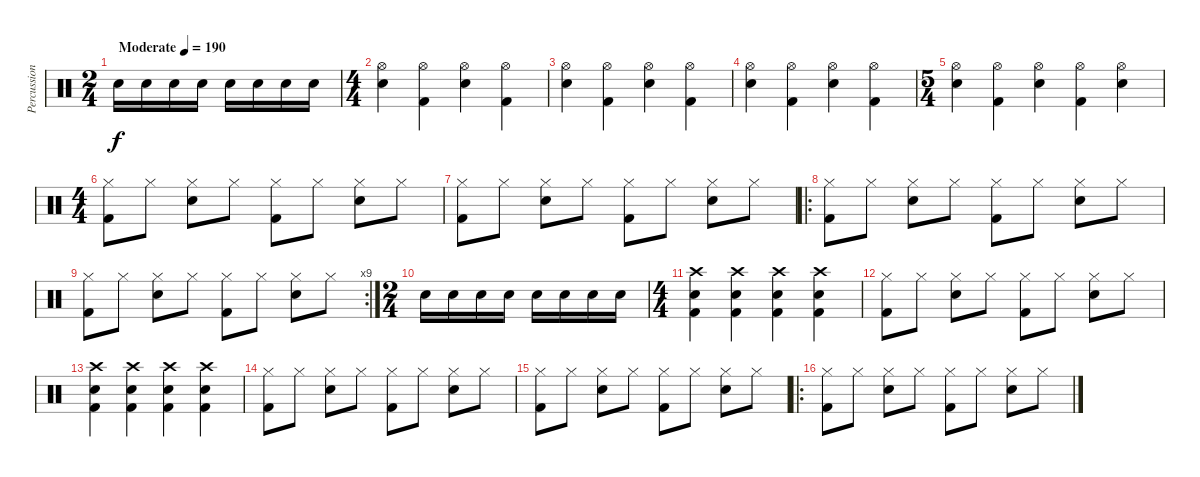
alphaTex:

\track ("Percussion" "Percussion") {instrument percussion}
\staff {score}
\articulation defaults
\ts (2 4)
\tempo (190 "Moderate")
\clef neutral
\ks c "Snare (hit) 2".16{dy f} "Snare (hit) 2".16 "Snare (hit) 2".16 "Snare (hit) 2".16 "Snare (hit) 2".16 "Snare (hit) 2".16 "Snare (hit) 2".16 "Snare (hit) 2".16
|
\ts (4 4)
("Hi-Hat (open)" "Snare (hit) 2").4 ("Hi-Hat (open)" "Kick (hit) 2").4 ("Hi-Hat (open)" "Snare (hit) 2").4 ("Hi-Hat (open)" "Kick (hit) 2").4 |
("Hi-Hat (open)" "Snare (hit) 2").4 ("Hi-Hat (open)" "Kick (hit) 2").4 ("Hi-Hat (open)" "Snare (hit) 2").4 ("Hi-Hat (open)" "Kick (hit) 2").4 |
("Hi-Hat (open)" "Snare (hit) 2").4 ("Hi-Hat (open)" "Kick (hit) 2").4 ("Hi-Hat (open)" "Snare (hit) 2").4 ("Hi-Hat (open)" "Kick (hit) 2").4 |
\ts (5 4)
("Hi-Hat (open)" "Snare (hit) 2").4 ("Hi-Hat (open)" "Kick (hit) 2").4 ("Hi-Hat (open)" "Snare (hit) 2").4 ("Hi-Hat (open)" "Kick (hit) 2").4 ("Hi-Hat (open)" "Snare (hit) 2").4 |
\ts (4 4)
("Hi-Hat (closed)" "Kick (hit) 2").8 "Hi-Hat (closed)".8 ("Hi-Hat (closed)" "Snare (hit) 2").8 "Hi-Hat (closed)".8 ("Hi-Hat (closed)" "Kick (hit) 2").8 "Hi-Hat (closed)".8 ("Hi-Hat (closed)" "Snare (hit) 2").8 "Hi-Hat (closed)".8 |
("Hi-Hat (closed)" "Kick (hit) 2").8 "Hi-Hat (closed)".8 ("Hi-Hat (closed)" "Snare (hit) 2").8 "Hi-Hat (closed)".8 ("Hi-Hat (closed)" "Kick (hit) 2").8 "Hi-Hat (closed)".8 ("Hi-Hat (closed)" "Snare (hit) 2").8 "Hi-Hat (closed)".8 |
\ro
("Hi-Hat (closed)" "Kick (hit) 2").8 "Hi-Hat (closed)".8 ("Hi-Hat (closed)" "Snare (hit) 2").8 "Hi-Hat (closed)".8 ("Hi-Hat (closed)" "Kick (hit) 2").8 "Hi-Hat (closed)".8 ("Hi-Hat (closed)" "Snare (hit) 2").8 "Hi-Hat (closed)".8 |
\rc 9
("Hi-Hat (closed)" "Kick (hit) 2").8 "Hi-Hat (closed)".8 ("Hi-Hat (closed)" "Snare (hit) 2").8 "Hi-Hat (closed)".8 ("Hi-Hat (closed)" "Kick (hit) 2").8 "Hi-Hat (closed)".8 ("Hi-Hat (closed)" "Snare (hit) 2").8 "Hi-Hat (closed)".8 |
\ts (2 4)
"Snare (hit) 2".16 "Snare (hit) 2".16 "Snare (hit) 2".16 "Snare (hit) 2".16 "Snare (hit) 2".16 "Snare (hit) 2".16 "Snare (hit) 2".16 "Snare (hit) 2".16 |
\ts (4 4)
("Crash high (hit)" "Snare (hit) 2" "Kick (hit) 2").4 ("Crash high (hit)" "Snare (hit) 2" "Kick (hit) 2").4 ("Crash high (hit)" "Snare (hit) 2" "Kick (hit) 2").4 ("Crash high (hit)" "Snare (hit) 2" "Kick (hit) 2").4 |
("Hi-Hat (closed)" "Kick (hit) 2").8 "Hi-Hat (closed)".8 ("Hi-Hat (closed)" "Snare (hit) 2").8 "Hi-Hat (closed)".8 ("Hi-Hat (closed)" "Kick (hit) 2").8 "Hi-Hat (closed)".8 ("Hi-Hat (closed)" "Snare (hit) 2").8 "Hi-Hat (closed)".8 |
("Crash high (hit)" "Kick (hit) 2" "Snare (hit) 2").4 ("Crash high (hit)" "Kick (hit) 2" "Snare (hit) 2").4 ("Crash high (hit)" "Kick (hit) 2" "Snare (hit) 2").4 ("Crash high (hit)" "Kick (hit) 2" "Snare (hit) 2").4 |
("Hi-Hat (closed)" "Kick (hit) 2").8 "Hi-Hat (closed)".8 ("Hi-Hat (closed)" "Snare (hit) 2").8 "Hi-Hat (closed)".8 ("Hi-Hat (closed)" "Kick (hit) 2").8 "Hi-Hat (closed)".8 ("Hi-Hat (closed)" "Snare (hit) 2").8 "Hi-Hat (closed)".8 |
("Hi-Hat (closed)" "Kick (hit) 2").8 "Hi-Hat (closed)".8 ("Hi-Hat (closed)" "Snare (hit) 2").8 "Hi-Hat (closed)".8 ("Hi-Hat (closed)" "Kick (hit) 2").8 "Hi-Hat (closed)".8 ("Hi-Hat (closed)" "Snare (hit) 2").8 "Hi-Hat (closed)".8 |
\ro
("Hi-Hat (closed)" "Kick (hit) 2").8 "Hi-Hat (closed)".8 ("Hi-Hat (closed)" "Snare (hit) 2").8 "Hi-Hat (closed)".8 ("Hi-Hat (closed)" "Kick (hit) 2").8 "Hi-Hat (closed)".8 ("Hi-Hat (closed)" "Snare (hit) 2").8 "Hi-Hat (closed)".8
